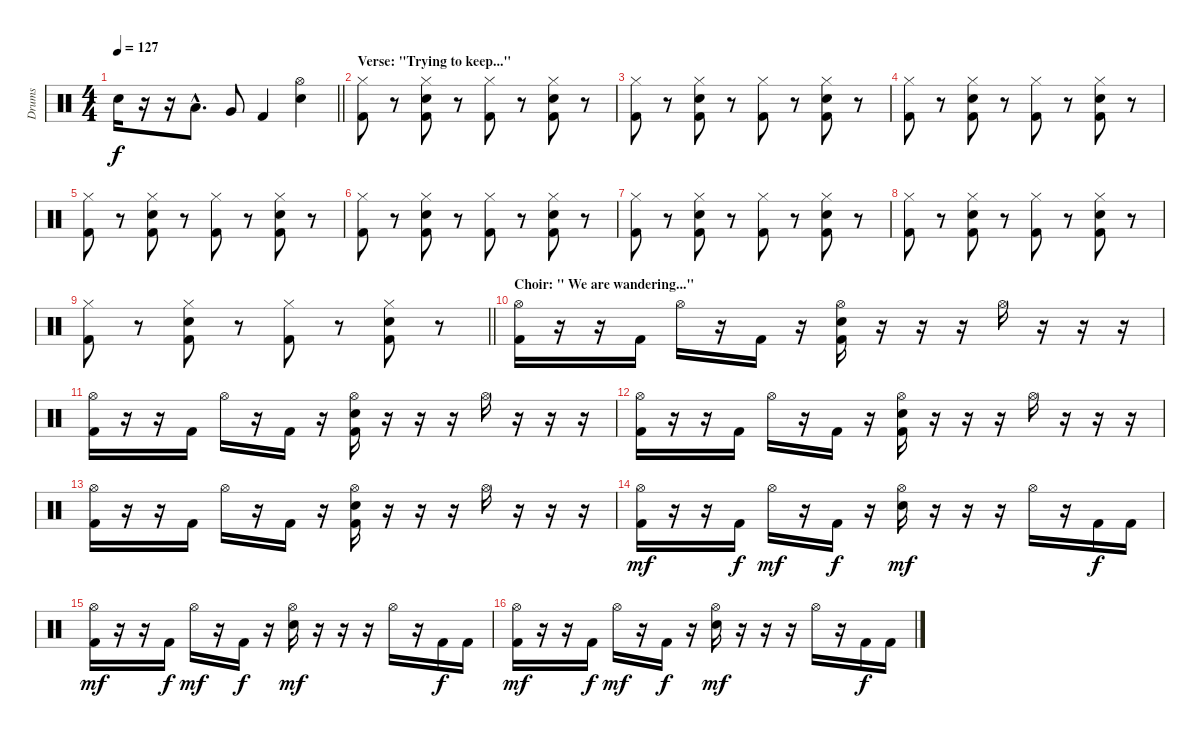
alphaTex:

\track ("Drums" "Drums") {instrument percussion}
\staff {score}
\articulation defaults
\ts (4 4)
\tempo 127
\clef neutral
\barLineRight lightlight
\ks c "Electric Snare (hit)".16{dy f}
r.16 r.16 "Low Tom (hit)"{hac}.8{d} "Very Low Tom (hit)".8 "Kick (hit) 2".4 ("Electric Snare (hit)" "Hi-Hat (open)").4 |
\section ("" "Verse: \"Trying to keep...\"")
("Kick (hit) 2" "Hi-Hat (closed)").8 r.8 ("Kick (hit) 2" "Electric Snare (hit)" "Hi-Hat (closed)").8 r.8 ("Kick (hit) 2" "Hi-Hat (closed)").8 r.8 ("Kick (hit) 2" "Electric Snare (hit)" "Hi-Hat (closed)").8 r.8 |
("Kick (hit) 2" "Hi-Hat (closed)").8 r.8 ("Kick (hit) 2" "Electric Snare (hit)" "Hi-Hat (closed)").8 r.8 ("Kick (hit) 2" "Hi-Hat (closed)").8 r.8 ("Kick (hit) 2" "Electric Snare (hit)" "Hi-Hat (closed)").8 r.8 |
("Kick (hit) 2" "Hi-Hat (closed)").8 r.8 ("Kick (hit) 2" "Electric Snare (hit)" "Hi-Hat (closed)").8 r.8 ("Kick (hit) 2" "Hi-Hat (closed)").8 r.8 ("Kick (hit) 2" "Electric Snare (hit)" "Hi-Hat (closed)").8 r.8 |
("Kick (hit) 2" "Hi-Hat (closed)").8 r.8 ("Kick (hit) 2" "Electric Snare (hit)" "Hi-Hat (closed)").8 r.8 ("Kick (hit) 2" "Hi-Hat (closed)").8 r.8 ("Kick (hit) 2" "Electric Snare (hit)" "Hi-Hat (closed)").8 r.8 |
("Kick (hit) 2" "Hi-Hat (closed)").8 r.8 ("Kick (hit) 2" "Electric Snare (hit)" "Hi-Hat (closed)").8 r.8 ("Kick (hit) 2" "Hi-Hat (closed)").8 r.8 ("Kick (hit) 2" "Electric Snare (hit)" "Hi-Hat (closed)").8 r.8 |
("Kick (hit) 2" "Hi-Hat (closed)").8 r.8 ("Kick (hit) 2" "Electric Snare (hit)" "Hi-Hat (closed)").8 r.8 ("Kick (hit) 2" "Hi-Hat (closed)").8 r.8 ("Kick (hit) 2" "Electric Snare (hit)" "Hi-Hat (closed)").8 r.8 |
("Kick (hit) 2" "Hi-Hat (closed)").8 r.8 ("Kick (hit) 2" "Electric Snare (hit)" "Hi-Hat (closed)").8 r.8 ("Kick (hit) 2" "Hi-Hat (closed)").8 r.8 ("Kick (hit) 2" "Electric Snare (hit)" "Hi-Hat (closed)").8 r.8 |
\barLineRight lightlight
("Kick (hit) 2" "Hi-Hat (closed)").8 r.8 ("Kick (hit) 2" "Electric Snare (hit)" "Hi-Hat (closed)").8 r.8 ("Kick (hit) 2" "Hi-Hat (closed)").8 r.8 ("Kick (hit) 2" "Electric Snare (hit)" "Hi-Hat (closed)").8 r.8 |
\section ("" "Choir: \" We are wandering...\"")
("Kick (hit) 2" "Hi-Hat (open)").16 r.16 r.16 "Kick (hit) 2".16 "Hi-Hat (open)".16 r.16 "Kick (hit) 2".16 r.16 ("Kick (hit) 2" "Electric Snare (hit)" "Hi-Hat (open)").16 r.16 r.16 r.16 "Hi-Hat (open)".16 r.16 r.16 r.16 |
("Kick (hit) 2" "Hi-Hat (open)").16 r.16 r.16 "Kick (hit) 2".16 "Hi-Hat (open)".16 r.16 "Kick (hit) 2".16 r.16 ("Kick (hit) 2" "Electric Snare (hit)" "Hi-Hat (open)").16 r.16 r.16 r.16 "Hi-Hat (open)".16 r.16 r.16 r.16 |
("Kick (hit) 2" "Hi-Hat (open)").16 r.16 r.16 "Kick (hit) 2".16 "Hi-Hat (open)".16 r.16 "Kick (hit) 2".16 r.16 ("Kick (hit) 2" "Electric Snare (hit)" "Hi-Hat (open)").16 r.16 r.16 r.16 "Hi-Hat (open)".16 r.16 r.16 r.16 |
("Kick (hit) 2" "Hi-Hat (open)").16 r.16 r.16 "Kick (hit) 2".16 "Hi-Hat (open)".16 r.16 "Kick (hit) 2".16 r.16 ("Kick (hit) 2" "Electric Snare (hit)" "Hi-Hat (open)").16 r.16 r.16 r.16 "Hi-Hat (open)".16 r.16 r.16 r.16 |
("Kick (hit) 2" "Hi-Hat (open)").16{dy mf} r.16 r.16 "Kick (hit) 2".16{dy f} "Hi-Hat (open)".16{dy mf} r.16 "Kick (hit) 2".16{dy f} r.16 ("Electric Snare (hit)" "Hi-Hat (open)").16{dy mf} r.16 r.16 r.16 "Hi-Hat (open)".16 r.16 "Kick (hit) 2".16{dy f} "Kick (hit) 2".16 |
("Kick (hit) 2" "Hi-Hat (open)").16{dy mf} r.16 r.16 "Kick (hit) 2".16{dy f} "Hi-Hat (open)".16{dy mf} r.16 "Kick (hit) 2".16{dy f} r.16 ("Electric Snare (hit)" "Hi-Hat (open)").16{dy mf} r.16 r.16 r.16 "Hi-Hat (open)".16 r.16 "Kick (hit) 2".16{dy f} "Kick (hit) 2".16 |
("Kick (hit) 2" "Hi-Hat (open)").16{dy mf} r.16 r.16 "Kick (hit) 2".16{dy f} "Hi-Hat (open)".16{dy mf} r.16 "Kick (hit) 2".16{dy f} r.16 ("Electric Snare (hit)" "Hi-Hat (open)").16{dy mf} r.16 r.16 r.16 "Hi-Hat (open)".16 r.16 "Kick (hit) 2".16{dy f} "Kick (hit) 2".16
